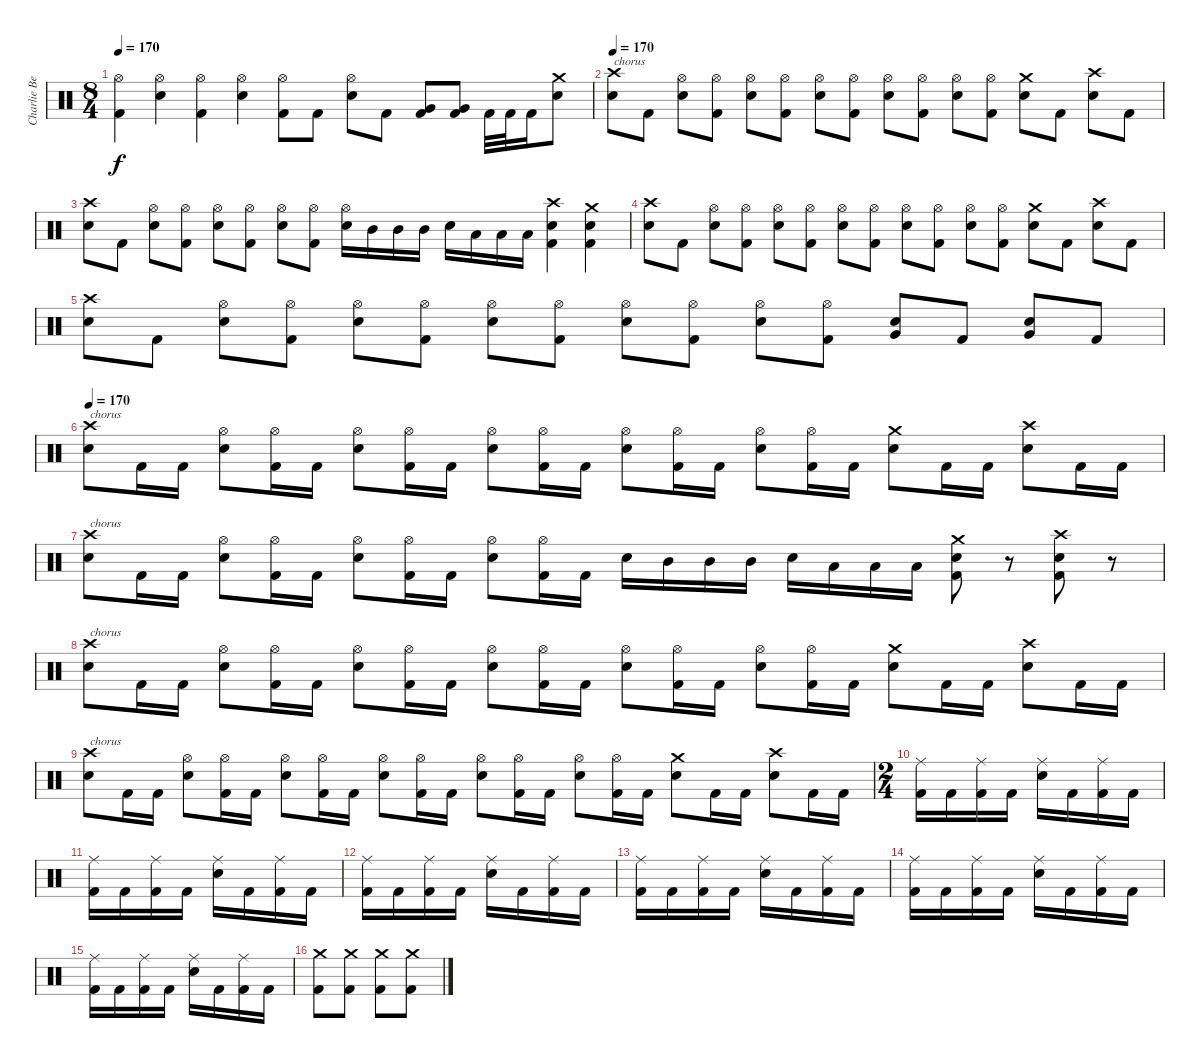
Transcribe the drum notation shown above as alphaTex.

\track ("Charlie Benante" "Charlie Be") {instrument percussion}
\staff {score}
\articulation defaults
\ts (8 4)
\tempo 170
\clef neutral
\ks c
("Hi-Hat (open)" "Kick (hit) 2").4{dy f} ("Hi-Hat (open)" "Electric Snare (hit)").4 ("Hi-Hat (open)" "Kick (hit) 2").4 ("Hi-Hat (open)" "Electric Snare (hit)").4 ("Hi-Hat (open)" "Kick (hit) 2").8 "Kick (hit) 2".8 ("Hi-Hat (open)" "Electric Snare (hit)").8 "Kick (hit) 2".8 ("Very Low Tom (hit)" "Kick (hit) 2").8 ("Very Low Tom (hit)" "Kick (hit) 2").8 "Kick (hit) 2".32 "Kick (hit) 2".32 "Kick (hit) 2".16 ("Crash medium (hit)" "Electric Snare (hit)").8 |
\tempo 170
("Crash high (hit)" "Electric Snare (hit)").8{txt "chorus"} "Kick (hit) 2".8 ("Hi-Hat (open)" "Electric Snare (hit)").8 ("Hi-Hat (open)" "Kick (hit) 2").8 ("Hi-Hat (open)" "Electric Snare (hit)").8 ("Hi-Hat (open)" "Kick (hit) 2").8 ("Hi-Hat (open)" "Electric Snare (hit)").8 ("Hi-Hat (open)" "Kick (hit) 2").8 ("Hi-Hat (open)" "Electric Snare (hit)").8 ("Hi-Hat (open)" "Kick (hit) 2").8 ("Hi-Hat (open)" "Electric Snare (hit)").8 ("Hi-Hat (open)" "Kick (hit) 2").8 ("Crash medium (hit)" "Electric Snare (hit)").8 "Kick (hit) 2".8 ("Crash high (hit)" "Electric Snare (hit)").8 "Kick (hit) 2".8 |
("Crash high (hit)" "Electric Snare (hit)").8 "Kick (hit) 2".8 ("Hi-Hat (open)" "Electric Snare (hit)").8 ("Hi-Hat (open)" "Kick (hit) 2").8 ("Hi-Hat (open)" "Electric Snare (hit)").8 ("Hi-Hat (open)" "Kick (hit) 2").8 ("Hi-Hat (open)" "Electric Snare (hit)").8 ("Hi-Hat (open)" "Kick (hit) 2").8 ("Hi-Hat (open)" "Electric Snare (hit)").16 "Mid Tom (hit)".16 "Mid Tom (hit)".16 "Mid Tom (hit)".16 "Electric Snare (hit)".16 "Low Tom (hit)".16 "Low Tom (hit)".16 "Low Tom (hit)".16 ("Crash high (hit)" "Electric Snare (hit)" "Kick (hit) 2").4 ("Crash medium (hit)" "Electric Snare (hit)" "Kick (hit) 2").4 |
("Crash high (hit)" "Electric Snare (hit)").8 "Kick (hit) 2".8 ("Hi-Hat (open)" "Electric Snare (hit)").8 ("Hi-Hat (open)" "Kick (hit) 2").8 ("Hi-Hat (open)" "Electric Snare (hit)").8 ("Hi-Hat (open)" "Kick (hit) 2").8 ("Hi-Hat (open)" "Electric Snare (hit)").8 ("Hi-Hat (open)" "Kick (hit) 2").8 ("Hi-Hat (open)" "Electric Snare (hit)").8 ("Hi-Hat (open)" "Kick (hit) 2").8 ("Hi-Hat (open)" "Electric Snare (hit)").8 ("Hi-Hat (open)" "Kick (hit) 2").8 ("Crash medium (hit)" "Electric Snare (hit)").8 "Kick (hit) 2".8 ("Crash high (hit)" "Electric Snare (hit)").8 "Kick (hit) 2".8 |
("Crash high (hit)" "Electric Snare (hit)").8 "Kick (hit) 2".8 ("Hi-Hat (open)" "Electric Snare (hit)").8 ("Hi-Hat (open)" "Kick (hit) 2").8 ("Hi-Hat (open)" "Electric Snare (hit)").8 ("Hi-Hat (open)" "Kick (hit) 2").8 ("Hi-Hat (open)" "Electric Snare (hit)").8 ("Hi-Hat (open)" "Kick (hit) 2").8 ("Hi-Hat (open)" "Electric Snare (hit)").8 ("Hi-Hat (open)" "Kick (hit) 2").8 ("Hi-Hat (open)" "Electric Snare (hit)").8 ("Hi-Hat (open)" "Kick (hit) 2").8 ("Very Low Tom (hit)" "Electric Snare (hit)").8 "Kick (hit) 2".8 ("Very Low Tom (hit)" "Electric Snare (hit)").8 "Kick (hit) 2".8 |
\tempo 170
("Crash high (hit)" "Electric Snare (hit)").8{txt "chorus"} "Kick (hit) 2".16 "Kick (hit) 2".16 ("Hi-Hat (open)" "Electric Snare (hit)").8 ("Hi-Hat (open)" "Kick (hit) 2").16 "Kick (hit) 2".16 ("Hi-Hat (open)" "Electric Snare (hit)").8 ("Hi-Hat (open)" "Kick (hit) 2").16 "Kick (hit) 2".16 ("Hi-Hat (open)" "Electric Snare (hit)").8 ("Hi-Hat (open)" "Kick (hit) 2").16 "Kick (hit) 2".16 ("Hi-Hat (open)" "Electric Snare (hit)").8 ("Hi-Hat (open)" "Kick (hit) 2").16 "Kick (hit) 2".16 ("Hi-Hat (open)" "Electric Snare (hit)").8 ("Hi-Hat (open)" "Kick (hit) 2").16 "Kick (hit) 2".16 ("Crash medium (hit)" "Electric Snare (hit)").8 "Kick (hit) 2".16 "Kick (hit) 2".16 ("Crash high (hit)" "Electric Snare (hit)").8 "Kick (hit) 2".16 "Kick (hit) 2".16 |
("Crash high (hit)" "Electric Snare (hit)").8{txt "chorus"} "Kick (hit) 2".16 "Kick (hit) 2".16 ("Hi-Hat (open)" "Electric Snare (hit)").8 ("Hi-Hat (open)" "Kick (hit) 2").16 "Kick (hit) 2".16 ("Hi-Hat (open)" "Electric Snare (hit)").8 ("Hi-Hat (open)" "Kick (hit) 2").16 "Kick (hit) 2".16 ("Hi-Hat (open)" "Electric Snare (hit)").8 ("Hi-Hat (open)" "Kick (hit) 2").16 "Kick (hit) 2".16 "Electric Snare (hit)".16 "Mid Tom (hit)".16 "Mid Tom (hit)".16 "Mid Tom (hit)".16 "Electric Snare (hit)".16 "Low Tom (hit)".16 "Low Tom (hit)".16 "Low Tom (hit)".16 ("Crash medium (hit)" "Electric Snare (hit)" "Kick (hit) 2").8 r.8 ("Crash high (hit)" "Electric Snare (hit)" "Kick (hit) 2").8 r.8 |
("Crash high (hit)" "Electric Snare (hit)").8{txt "chorus"} "Kick (hit) 2".16 "Kick (hit) 2".16 ("Hi-Hat (open)" "Electric Snare (hit)").8 ("Hi-Hat (open)" "Kick (hit) 2").16 "Kick (hit) 2".16 ("Hi-Hat (open)" "Electric Snare (hit)").8 ("Hi-Hat (open)" "Kick (hit) 2").16 "Kick (hit) 2".16 ("Hi-Hat (open)" "Electric Snare (hit)").8 ("Hi-Hat (open)" "Kick (hit) 2").16 "Kick (hit) 2".16 ("Hi-Hat (open)" "Electric Snare (hit)").8 ("Hi-Hat (open)" "Kick (hit) 2").16 "Kick (hit) 2".16 ("Hi-Hat (open)" "Electric Snare (hit)").8 ("Hi-Hat (open)" "Kick (hit) 2").16 "Kick (hit) 2".16 ("Crash medium (hit)" "Electric Snare (hit)").8 "Kick (hit) 2".16 "Kick (hit) 2".16 ("Crash high (hit)" "Electric Snare (hit)").8 "Kick (hit) 2".16 "Kick (hit) 2".16 |
("Crash high (hit)" "Electric Snare (hit)").8{txt "chorus"} "Kick (hit) 2".16 "Kick (hit) 2".16 ("Hi-Hat (open)" "Electric Snare (hit)").8 ("Hi-Hat (open)" "Kick (hit) 2").16 "Kick (hit) 2".16 ("Hi-Hat (open)" "Electric Snare (hit)").8 ("Hi-Hat (open)" "Kick (hit) 2").16 "Kick (hit) 2".16 ("Hi-Hat (open)" "Electric Snare (hit)").8 ("Hi-Hat (open)" "Kick (hit) 2").16 "Kick (hit) 2".16 ("Hi-Hat (open)" "Electric Snare (hit)").8 ("Hi-Hat (open)" "Kick (hit) 2").16 "Kick (hit) 2".16 ("Hi-Hat (open)" "Electric Snare (hit)").8 ("Hi-Hat (open)" "Kick (hit) 2").16 "Kick (hit) 2".16 ("Crash medium (hit)" "Electric Snare (hit)").8 "Kick (hit) 2".16 "Kick (hit) 2".16 ("Crash high (hit)" "Electric Snare (hit)").8 "Kick (hit) 2".16 "Kick (hit) 2".16 |
\ts (2 4)
("Ride (middle)" "Kick (hit) 2").16 "Kick (hit) 2".16 ("Ride (middle)" "Kick (hit) 2").16 "Kick (hit) 2".16 ("Ride (middle)" "Electric Snare (hit)").16 "Kick (hit) 2".16 ("Ride (middle)" "Kick (hit) 2").16 "Kick (hit) 2".16 |
("Ride (middle)" "Kick (hit) 2").16 "Kick (hit) 2".16 ("Ride (middle)" "Kick (hit) 2").16 "Kick (hit) 2".16 ("Ride (middle)" "Electric Snare (hit)").16 "Kick (hit) 2".16 ("Ride (middle)" "Kick (hit) 2").16 "Kick (hit) 2".16 |
("Ride (middle)" "Kick (hit) 2").16 "Kick (hit) 2".16 ("Ride (middle)" "Kick (hit) 2").16 "Kick (hit) 2".16 ("Ride (middle)" "Electric Snare (hit)").16 "Kick (hit) 2".16 ("Ride (middle)" "Kick (hit) 2").16 "Kick (hit) 2".16 |
("Ride (middle)" "Kick (hit) 2").16 "Kick (hit) 2".16 ("Ride (middle)" "Kick (hit) 2").16 "Kick (hit) 2".16 ("Ride (middle)" "Electric Snare (hit)").16 "Kick (hit) 2".16 ("Ride (middle)" "Kick (hit) 2").16 "Kick (hit) 2".16 |
("Ride (middle)" "Kick (hit) 2").16 "Kick (hit) 2".16 ("Ride (middle)" "Kick (hit) 2").16 "Kick (hit) 2".16 ("Ride (middle)" "Electric Snare (hit)").16 "Kick (hit) 2".16 ("Ride (middle)" "Kick (hit) 2").16 "Kick (hit) 2".16 |
("Ride (middle)" "Kick (hit) 2").16 "Kick (hit) 2".16 ("Ride (middle)" "Kick (hit) 2").16 "Kick (hit) 2".16 ("Ride (middle)" "Electric Snare (hit)").16 "Kick (hit) 2".16 ("Ride (middle)" "Kick (hit) 2").16 "Kick (hit) 2".16 |
("Crash medium (hit)" "Kick (hit) 2").8 ("Crash medium (hit)" "Kick (hit) 2").8 ("Crash medium (hit)" "Kick (hit) 2").8 ("Crash medium (hit)" "Kick (hit) 2").8
